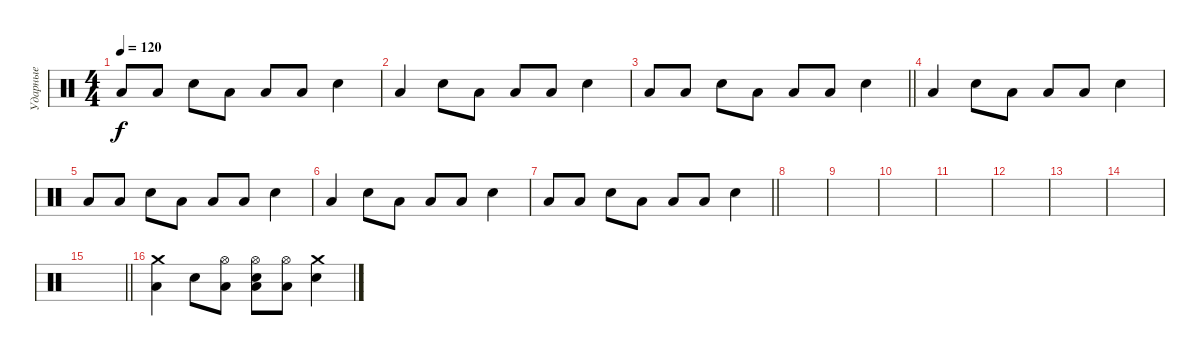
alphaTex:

\track ("Ударные" "Ударные") {instrument percussion}
\staff {score}
\articulation defaults
\ts (4 4)
\tempo 120
\clef neutral
\ks c "Low Floor Tom (hit)".8{dy f} "Low Floor Tom (hit)".8 "Snare (hit) 2".8 "Low Floor Tom (hit)".8 "Low Floor Tom (hit)".8 "Low Floor Tom (hit)".8 "Snare (hit) 2".4
|
"Low Floor Tom (hit)".4 "Snare (hit) 2".8 "Low Floor Tom (hit)".8 "Low Floor Tom (hit)".8 "Low Floor Tom (hit)".8 "Snare (hit) 2".4 |
\barLineRight lightlight "Low Floor Tom (hit)".8 "Low Floor Tom (hit)".8 "Snare (hit) 2".8 "Low Floor Tom (hit)".8 "Low Floor Tom (hit)".8 "Low Floor Tom (hit)".8 "Snare (hit) 2".4
|
"Low Floor Tom (hit)".4 "Snare (hit) 2".8 "Low Floor Tom (hit)".8 "Low Floor Tom (hit)".8 "Low Floor Tom (hit)".8 "Snare (hit) 2".4 |
"Low Floor Tom (hit)".8 "Low Floor Tom (hit)".8 "Snare (hit) 2".8 "Low Floor Tom (hit)".8 "Low Floor Tom (hit)".8 "Low Floor Tom (hit)".8 "Snare (hit) 2".4 |
"Low Floor Tom (hit)".4 "Snare (hit) 2".8 "Low Floor Tom (hit)".8 "Low Floor Tom (hit)".8 "Low Floor Tom (hit)".8 "Snare (hit) 2".4 |
\barLineRight lightlight "Low Floor Tom (hit)".8 "Low Floor Tom (hit)".8 "Snare (hit) 2".8 "Low Floor Tom (hit)".8 "Low Floor Tom (hit)".8 "Low Floor Tom (hit)".8 "Snare (hit) 2".4
|
\section ("" "")
|
|
|
|
|
|
|
\barLineRight lightlight
|
\section ("" "")
("Low Floor Tom (hit)" "Crash medium (hit)").4 "Snare (hit) 2".8 ("Low Floor Tom (hit)" "Hi-Hat (open)").8 ("Low Floor Tom (hit)" "Snare (hit) 2" "Hi-Hat (open)").8 ("Low Floor Tom (hit)" "Hi-Hat (open)").8 ("Snare (hit) 2" "Crash medium (hit)").4
